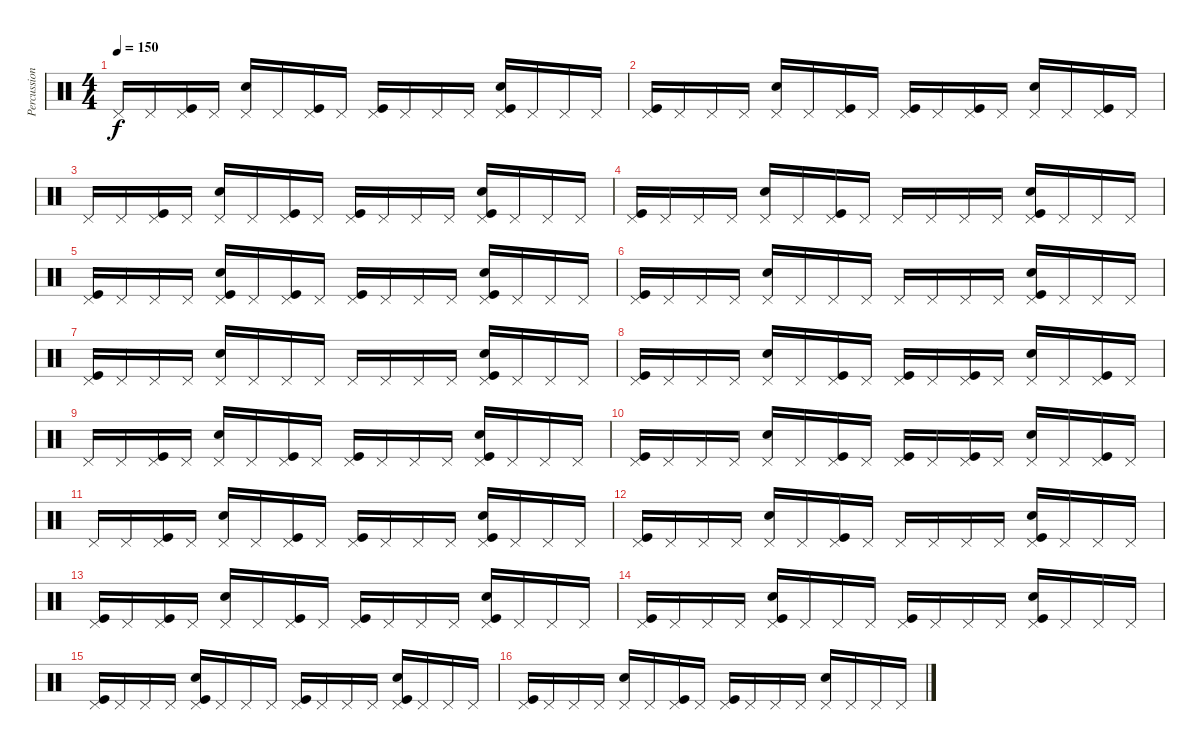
\track ("Percussion" "Percussion") {instrument percussion}
\staff {score}
\articulation defaults
\ts (4 4)
\tempo 150
\clef neutral
\ks c "Pedal Hi-Hat (hit)".16{dy f} "Pedal Hi-Hat (hit)".16
("Pedal Hi-Hat (hit)" "Kick (hit)").16 "Pedal Hi-Hat (hit)".16 ("Pedal Hi-Hat (hit)" "Electric Snare (hit)").16 "Pedal Hi-Hat (hit)".16 ("Pedal Hi-Hat (hit)" "Kick (hit)").16 "Pedal Hi-Hat (hit)".16 ("Pedal Hi-Hat (hit)" "Kick (hit)").16 "Pedal Hi-Hat (hit)".16 "Pedal Hi-Hat (hit)".16 "Pedal Hi-Hat (hit)".16 ("Pedal Hi-Hat (hit)" "Electric Snare (hit)" "Kick (hit)").16 "Pedal Hi-Hat (hit)".16 "Pedal Hi-Hat (hit)".16 "Pedal Hi-Hat (hit)".16 |
("Pedal Hi-Hat (hit)" "Kick (hit)").16 "Pedal Hi-Hat (hit)".16 "Pedal Hi-Hat (hit)".16 "Pedal Hi-Hat (hit)".16 ("Pedal Hi-Hat (hit)" "Electric Snare (hit)").16 "Pedal Hi-Hat (hit)".16 ("Pedal Hi-Hat (hit)" "Kick (hit)").16 "Pedal Hi-Hat (hit)".16 ("Pedal Hi-Hat (hit)" "Kick (hit)").16 "Pedal Hi-Hat (hit)".16 ("Pedal Hi-Hat (hit)" "Kick (hit)").16 "Pedal Hi-Hat (hit)".16 ("Pedal Hi-Hat (hit)" "Electric Snare (hit)").16 "Pedal Hi-Hat (hit)".16 ("Pedal Hi-Hat (hit)" "Kick (hit)").16 "Pedal Hi-Hat (hit)".16 |
"Pedal Hi-Hat (hit)".16 "Pedal Hi-Hat (hit)".16 ("Pedal Hi-Hat (hit)" "Kick (hit)").16 "Pedal Hi-Hat (hit)".16 ("Pedal Hi-Hat (hit)" "Electric Snare (hit)").16 "Pedal Hi-Hat (hit)".16 ("Pedal Hi-Hat (hit)" "Kick (hit)").16 "Pedal Hi-Hat (hit)".16 ("Pedal Hi-Hat (hit)" "Kick (hit)").16 "Pedal Hi-Hat (hit)".16 "Pedal Hi-Hat (hit)".16 "Pedal Hi-Hat (hit)".16 ("Pedal Hi-Hat (hit)" "Electric Snare (hit)" "Kick (hit)").16 "Pedal Hi-Hat (hit)".16 "Pedal Hi-Hat (hit)".16 "Pedal Hi-Hat (hit)".16 |
("Pedal Hi-Hat (hit)" "Kick (hit)").16 "Pedal Hi-Hat (hit)".16 "Pedal Hi-Hat (hit)".16 "Pedal Hi-Hat (hit)".16 ("Pedal Hi-Hat (hit)" "Electric Snare (hit)").16 "Pedal Hi-Hat (hit)".16 ("Pedal Hi-Hat (hit)" "Kick (hit)").16 "Pedal Hi-Hat (hit)".16 "Pedal Hi-Hat (hit)".16 "Pedal Hi-Hat (hit)".16 "Pedal Hi-Hat (hit)".16 "Pedal Hi-Hat (hit)".16 ("Pedal Hi-Hat (hit)" "Electric Snare (hit)" "Kick (hit)").16 "Pedal Hi-Hat (hit)".16 "Pedal Hi-Hat (hit)".16 "Pedal Hi-Hat (hit)".16 |
("Pedal Hi-Hat (hit)" "Kick (hit)").16 "Pedal Hi-Hat (hit)".16 "Pedal Hi-Hat (hit)".16 "Pedal Hi-Hat (hit)".16 ("Pedal Hi-Hat (hit)" "Electric Snare (hit)" "Kick (hit)").16 "Pedal Hi-Hat (hit)".16 ("Pedal Hi-Hat (hit)" "Kick (hit)").16 "Pedal Hi-Hat (hit)".16 ("Pedal Hi-Hat (hit)" "Kick (hit)").16 "Pedal Hi-Hat (hit)".16 "Pedal Hi-Hat (hit)".16 "Pedal Hi-Hat (hit)".16 ("Pedal Hi-Hat (hit)" "Electric Snare (hit)" "Kick (hit)").16 "Pedal Hi-Hat (hit)".16 "Pedal Hi-Hat (hit)".16 "Pedal Hi-Hat (hit)".16 |
("Pedal Hi-Hat (hit)" "Kick (hit)").16 "Pedal Hi-Hat (hit)".16 "Pedal Hi-Hat (hit)".16 "Pedal Hi-Hat (hit)".16 ("Pedal Hi-Hat (hit)" "Electric Snare (hit)").16 "Pedal Hi-Hat (hit)".16 "Pedal Hi-Hat (hit)".16 "Pedal Hi-Hat (hit)".16 "Pedal Hi-Hat (hit)".16 "Pedal Hi-Hat (hit)".16 "Pedal Hi-Hat (hit)".16 "Pedal Hi-Hat (hit)".16 ("Pedal Hi-Hat (hit)" "Electric Snare (hit)" "Kick (hit)").16 "Pedal Hi-Hat (hit)".16 "Pedal Hi-Hat (hit)".16 "Pedal Hi-Hat (hit)".16 |
("Pedal Hi-Hat (hit)" "Kick (hit)").16 "Pedal Hi-Hat (hit)".16 "Pedal Hi-Hat (hit)".16 "Pedal Hi-Hat (hit)".16 ("Pedal Hi-Hat (hit)" "Electric Snare (hit)").16 "Pedal Hi-Hat (hit)".16 "Pedal Hi-Hat (hit)".16 "Pedal Hi-Hat (hit)".16 "Pedal Hi-Hat (hit)".16 "Pedal Hi-Hat (hit)".16 "Pedal Hi-Hat (hit)".16 "Pedal Hi-Hat (hit)".16 ("Pedal Hi-Hat (hit)" "Electric Snare (hit)" "Kick (hit)").16 "Pedal Hi-Hat (hit)".16 "Pedal Hi-Hat (hit)".16 "Pedal Hi-Hat (hit)".16 |
("Pedal Hi-Hat (hit)" "Kick (hit)").16 "Pedal Hi-Hat (hit)".16 "Pedal Hi-Hat (hit)".16 "Pedal Hi-Hat (hit)".16 ("Pedal Hi-Hat (hit)" "Electric Snare (hit)").16 "Pedal Hi-Hat (hit)".16 ("Pedal Hi-Hat (hit)" "Kick (hit)").16 "Pedal Hi-Hat (hit)".16 ("Pedal Hi-Hat (hit)" "Kick (hit)").16 "Pedal Hi-Hat (hit)".16 ("Pedal Hi-Hat (hit)" "Kick (hit)").16 "Pedal Hi-Hat (hit)".16 ("Pedal Hi-Hat (hit)" "Electric Snare (hit)").16 "Pedal Hi-Hat (hit)".16 ("Pedal Hi-Hat (hit)" "Kick (hit)").16 "Pedal Hi-Hat (hit)".16 |
"Pedal Hi-Hat (hit)".16 "Pedal Hi-Hat (hit)".16 ("Pedal Hi-Hat (hit)" "Kick (hit)").16 "Pedal Hi-Hat (hit)".16 ("Pedal Hi-Hat (hit)" "Electric Snare (hit)").16 "Pedal Hi-Hat (hit)".16 ("Pedal Hi-Hat (hit)" "Kick (hit)").16 "Pedal Hi-Hat (hit)".16 ("Pedal Hi-Hat (hit)" "Kick (hit)").16 "Pedal Hi-Hat (hit)".16 "Pedal Hi-Hat (hit)".16 "Pedal Hi-Hat (hit)".16 ("Pedal Hi-Hat (hit)" "Electric Snare (hit)" "Kick (hit)").16 "Pedal Hi-Hat (hit)".16 "Pedal Hi-Hat (hit)".16 "Pedal Hi-Hat (hit)".16 |
("Pedal Hi-Hat (hit)" "Kick (hit)").16 "Pedal Hi-Hat (hit)".16 "Pedal Hi-Hat (hit)".16 "Pedal Hi-Hat (hit)".16 ("Pedal Hi-Hat (hit)" "Electric Snare (hit)").16 "Pedal Hi-Hat (hit)".16 ("Pedal Hi-Hat (hit)" "Kick (hit)").16 "Pedal Hi-Hat (hit)".16 ("Pedal Hi-Hat (hit)" "Kick (hit)").16 "Pedal Hi-Hat (hit)".16 ("Pedal Hi-Hat (hit)" "Kick (hit)").16 "Pedal Hi-Hat (hit)".16 ("Pedal Hi-Hat (hit)" "Electric Snare (hit)").16 "Pedal Hi-Hat (hit)".16 ("Pedal Hi-Hat (hit)" "Kick (hit)").16 "Pedal Hi-Hat (hit)".16 |
"Pedal Hi-Hat (hit)".16 "Pedal Hi-Hat (hit)".16 ("Pedal Hi-Hat (hit)" "Kick (hit)").16 "Pedal Hi-Hat (hit)".16 ("Pedal Hi-Hat (hit)" "Electric Snare (hit)").16 "Pedal Hi-Hat (hit)".16 ("Pedal Hi-Hat (hit)" "Kick (hit)").16 "Pedal Hi-Hat (hit)".16 ("Pedal Hi-Hat (hit)" "Kick (hit)").16 "Pedal Hi-Hat (hit)".16 "Pedal Hi-Hat (hit)".16 "Pedal Hi-Hat (hit)".16 ("Pedal Hi-Hat (hit)" "Electric Snare (hit)" "Kick (hit)").16 "Pedal Hi-Hat (hit)".16 "Pedal Hi-Hat (hit)".16 "Pedal Hi-Hat (hit)".16 |
("Pedal Hi-Hat (hit)" "Kick (hit)").16 "Pedal Hi-Hat (hit)".16 "Pedal Hi-Hat (hit)".16 "Pedal Hi-Hat (hit)".16 ("Pedal Hi-Hat (hit)" "Electric Snare (hit)").16 "Pedal Hi-Hat (hit)".16 ("Pedal Hi-Hat (hit)" "Kick (hit)").16 "Pedal Hi-Hat (hit)".16 "Pedal Hi-Hat (hit)".16 "Pedal Hi-Hat (hit)".16 "Pedal Hi-Hat (hit)".16 "Pedal Hi-Hat (hit)".16 ("Pedal Hi-Hat (hit)" "Electric Snare (hit)" "Kick (hit)").16 "Pedal Hi-Hat (hit)".16 "Pedal Hi-Hat (hit)".16 "Pedal Hi-Hat (hit)".16 |
("Pedal Hi-Hat (hit)" "Kick (hit)").16 "Pedal Hi-Hat (hit)".16 ("Pedal Hi-Hat (hit)" "Kick (hit)").16 "Pedal Hi-Hat (hit)".16 ("Pedal Hi-Hat (hit)" "Electric Snare (hit)").16 "Pedal Hi-Hat (hit)".16 ("Pedal Hi-Hat (hit)" "Kick (hit)").16 "Pedal Hi-Hat (hit)".16 ("Pedal Hi-Hat (hit)" "Kick (hit)").16 "Pedal Hi-Hat (hit)".16 "Pedal Hi-Hat (hit)".16 "Pedal Hi-Hat (hit)".16 ("Pedal Hi-Hat (hit)" "Electric Snare (hit)" "Kick (hit)").16 "Pedal Hi-Hat (hit)".16 "Pedal Hi-Hat (hit)".16 "Pedal Hi-Hat (hit)".16 |
("Pedal Hi-Hat (hit)" "Kick (hit)").16 "Pedal Hi-Hat (hit)".16 "Pedal Hi-Hat (hit)".16 "Pedal Hi-Hat (hit)".16 ("Pedal Hi-Hat (hit)" "Electric Snare (hit)" "Kick (hit)").16 "Pedal Hi-Hat (hit)".16 "Pedal Hi-Hat (hit)".16 "Pedal Hi-Hat (hit)".16 ("Pedal Hi-Hat (hit)" "Kick (hit)").16 "Pedal Hi-Hat (hit)".16 "Pedal Hi-Hat (hit)".16 "Pedal Hi-Hat (hit)".16 ("Pedal Hi-Hat (hit)" "Electric Snare (hit)" "Kick (hit)").16 "Pedal Hi-Hat (hit)".16 "Pedal Hi-Hat (hit)".16 "Pedal Hi-Hat (hit)".16 |
("Pedal Hi-Hat (hit)" "Kick (hit)").16 "Pedal Hi-Hat (hit)".16 "Pedal Hi-Hat (hit)".16 "Pedal Hi-Hat (hit)".16 ("Pedal Hi-Hat (hit)" "Electric Snare (hit)" "Kick (hit)").16 "Pedal Hi-Hat (hit)".16 "Pedal Hi-Hat (hit)".16 "Pedal Hi-Hat (hit)".16 ("Pedal Hi-Hat (hit)" "Kick (hit)").16 "Pedal Hi-Hat (hit)".16 "Pedal Hi-Hat (hit)".16 "Pedal Hi-Hat (hit)".16 ("Pedal Hi-Hat (hit)" "Electric Snare (hit)" "Kick (hit)").16 "Pedal Hi-Hat (hit)".16 "Pedal Hi-Hat (hit)".16 "Pedal Hi-Hat (hit)".16 |
("Pedal Hi-Hat (hit)" "Kick (hit)").16 "Pedal Hi-Hat (hit)".16 "Pedal Hi-Hat (hit)".16 "Pedal Hi-Hat (hit)".16 ("Pedal Hi-Hat (hit)" "Electric Snare (hit)").16 "Pedal Hi-Hat (hit)".16 ("Pedal Hi-Hat (hit)" "Kick (hit)").16 "Pedal Hi-Hat (hit)".16 ("Pedal Hi-Hat (hit)" "Kick (hit)").16 "Pedal Hi-Hat (hit)".16 "Pedal Hi-Hat (hit)".16 "Pedal Hi-Hat (hit)".16 ("Pedal Hi-Hat (hit)" "Electric Snare (hit)").16 "Pedal Hi-Hat (hit)".16 "Pedal Hi-Hat (hit)".16 "Pedal Hi-Hat (hit)".16
